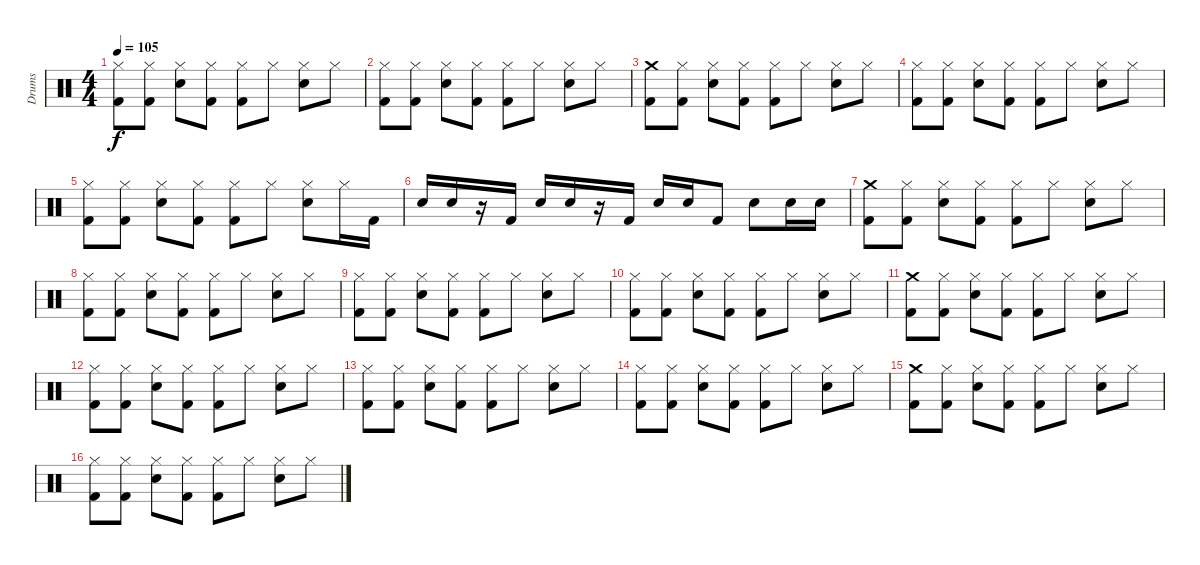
\track ("Drums" "Drums") {instrument percussion}
\staff {score}
\articulation defaults
\ts (4 4)
\tempo 105
\clef neutral
\ks c
("Kick (hit) 2" "Hi-Hat (closed)").8{dy f} ("Kick (hit) 2" "Hi-Hat (closed)").8 ("Snare (hit) 2" "Hi-Hat (closed)").8 ("Kick (hit) 2" "Hi-Hat (closed)").8 ("Kick (hit) 2" "Hi-Hat (closed)").8 "Hi-Hat (closed)".8 ("Snare (hit) 2" "Hi-Hat (closed)").8 "Hi-Hat (closed)".8 |
("Kick (hit) 2" "Hi-Hat (closed)").8 ("Kick (hit) 2" "Hi-Hat (closed)").8 ("Snare (hit) 2" "Hi-Hat (closed)").8 ("Kick (hit) 2" "Hi-Hat (closed)").8 ("Kick (hit) 2" "Hi-Hat (closed)").8 "Hi-Hat (closed)".8 ("Snare (hit) 2" "Hi-Hat (closed)").8 "Hi-Hat (closed)".8 |
("Kick (hit) 2" "Crash medium (hit)").8 ("Kick (hit) 2" "Hi-Hat (closed)").8 ("Snare (hit) 2" "Hi-Hat (closed)").8 ("Kick (hit) 2" "Hi-Hat (closed)").8 ("Kick (hit) 2" "Hi-Hat (closed)").8 "Hi-Hat (closed)".8 ("Snare (hit) 2" "Hi-Hat (closed)").8 "Hi-Hat (closed)".8 |
("Kick (hit) 2" "Hi-Hat (closed)").8 ("Kick (hit) 2" "Hi-Hat (closed)").8 ("Snare (hit) 2" "Hi-Hat (closed)").8 ("Kick (hit) 2" "Hi-Hat (closed)").8 ("Kick (hit) 2" "Hi-Hat (closed)").8 "Hi-Hat (closed)".8 ("Snare (hit) 2" "Hi-Hat (closed)").8 "Hi-Hat (closed)".8 |
("Kick (hit) 2" "Hi-Hat (closed)").8 ("Kick (hit) 2" "Hi-Hat (closed)").8 ("Snare (hit) 2" "Hi-Hat (closed)").8 ("Kick (hit) 2" "Hi-Hat (closed)").8 ("Kick (hit) 2" "Hi-Hat (closed)").8 "Hi-Hat (closed)".8 ("Snare (hit) 2" "Hi-Hat (closed)").8 "Hi-Hat (closed)".16 "Kick (hit) 2".16 |
"Snare (hit) 2".16 "Snare (hit) 2".16 r.16 "Kick (hit) 2".16 "Snare (hit) 2".16 "Snare (hit) 2".16 r.16 "Kick (hit) 2".16 "Snare (hit) 2".16 "Snare (hit) 2".16 "Kick (hit) 2".8 "Snare (hit) 2".8 "Snare (hit) 2".16 "Snare (hit) 2".16 |
("Kick (hit) 2" "Crash medium (hit)").8 ("Kick (hit) 2" "Hi-Hat (closed)").8 ("Snare (hit) 2" "Hi-Hat (closed)").8 ("Kick (hit) 2" "Hi-Hat (closed)").8 ("Kick (hit) 2" "Hi-Hat (closed)").8 "Hi-Hat (closed)".8 ("Snare (hit) 2" "Hi-Hat (closed)").8 "Hi-Hat (closed)".8 |
("Kick (hit) 2" "Hi-Hat (closed)").8 ("Kick (hit) 2" "Hi-Hat (closed)").8 ("Snare (hit) 2" "Hi-Hat (closed)").8 ("Kick (hit) 2" "Hi-Hat (closed)").8 ("Kick (hit) 2" "Hi-Hat (closed)").8 "Hi-Hat (closed)".8 ("Snare (hit) 2" "Hi-Hat (closed)").8 "Hi-Hat (closed)".8 |
("Kick (hit) 2" "Hi-Hat (closed)").8 ("Kick (hit) 2" "Hi-Hat (closed)").8 ("Snare (hit) 2" "Hi-Hat (closed)").8 ("Kick (hit) 2" "Hi-Hat (closed)").8 ("Kick (hit) 2" "Hi-Hat (closed)").8 "Hi-Hat (closed)".8 ("Snare (hit) 2" "Hi-Hat (closed)").8 "Hi-Hat (closed)".8 |
("Kick (hit) 2" "Hi-Hat (closed)").8 ("Kick (hit) 2" "Hi-Hat (closed)").8 ("Snare (hit) 2" "Hi-Hat (closed)").8 ("Kick (hit) 2" "Hi-Hat (closed)").8 ("Kick (hit) 2" "Hi-Hat (closed)").8 "Hi-Hat (closed)".8 ("Snare (hit) 2" "Hi-Hat (closed)").8 "Hi-Hat (closed)".8 |
("Kick (hit) 2" "Crash medium (hit)").8 ("Kick (hit) 2" "Hi-Hat (closed)").8 ("Snare (hit) 2" "Hi-Hat (closed)").8 ("Kick (hit) 2" "Hi-Hat (closed)").8 ("Kick (hit) 2" "Hi-Hat (closed)").8 "Hi-Hat (closed)".8 ("Snare (hit) 2" "Hi-Hat (closed)").8 "Hi-Hat (closed)".8 |
("Kick (hit) 2" "Hi-Hat (closed)").8 ("Kick (hit) 2" "Hi-Hat (closed)").8 ("Snare (hit) 2" "Hi-Hat (closed)").8 ("Kick (hit) 2" "Hi-Hat (closed)").8 ("Kick (hit) 2" "Hi-Hat (closed)").8 "Hi-Hat (closed)".8 ("Snare (hit) 2" "Hi-Hat (closed)").8 "Hi-Hat (closed)".8 |
("Kick (hit) 2" "Hi-Hat (closed)").8 ("Kick (hit) 2" "Hi-Hat (closed)").8 ("Snare (hit) 2" "Hi-Hat (closed)").8 ("Kick (hit) 2" "Hi-Hat (closed)").8 ("Kick (hit) 2" "Hi-Hat (closed)").8 "Hi-Hat (closed)".8 ("Snare (hit) 2" "Hi-Hat (closed)").8 "Hi-Hat (closed)".8 |
("Kick (hit) 2" "Hi-Hat (closed)").8 ("Kick (hit) 2" "Hi-Hat (closed)").8 ("Snare (hit) 2" "Hi-Hat (closed)").8 ("Kick (hit) 2" "Hi-Hat (closed)").8 ("Kick (hit) 2" "Hi-Hat (closed)").8 "Hi-Hat (closed)".8 ("Snare (hit) 2" "Hi-Hat (closed)").8 "Hi-Hat (closed)".8 |
("Kick (hit) 2" "Crash medium (hit)").8 ("Kick (hit) 2" "Hi-Hat (closed)").8 ("Snare (hit) 2" "Hi-Hat (closed)").8 ("Kick (hit) 2" "Hi-Hat (closed)").8 ("Kick (hit) 2" "Hi-Hat (closed)").8 "Hi-Hat (closed)".8 ("Snare (hit) 2" "Hi-Hat (closed)").8 "Hi-Hat (closed)".8 |
("Kick (hit) 2" "Hi-Hat (closed)").8 ("Kick (hit) 2" "Hi-Hat (closed)").8 ("Snare (hit) 2" "Hi-Hat (closed)").8 ("Kick (hit) 2" "Hi-Hat (closed)").8 ("Kick (hit) 2" "Hi-Hat (closed)").8 "Hi-Hat (closed)".8 ("Snare (hit) 2" "Hi-Hat (closed)").8 "Hi-Hat (closed)".8
